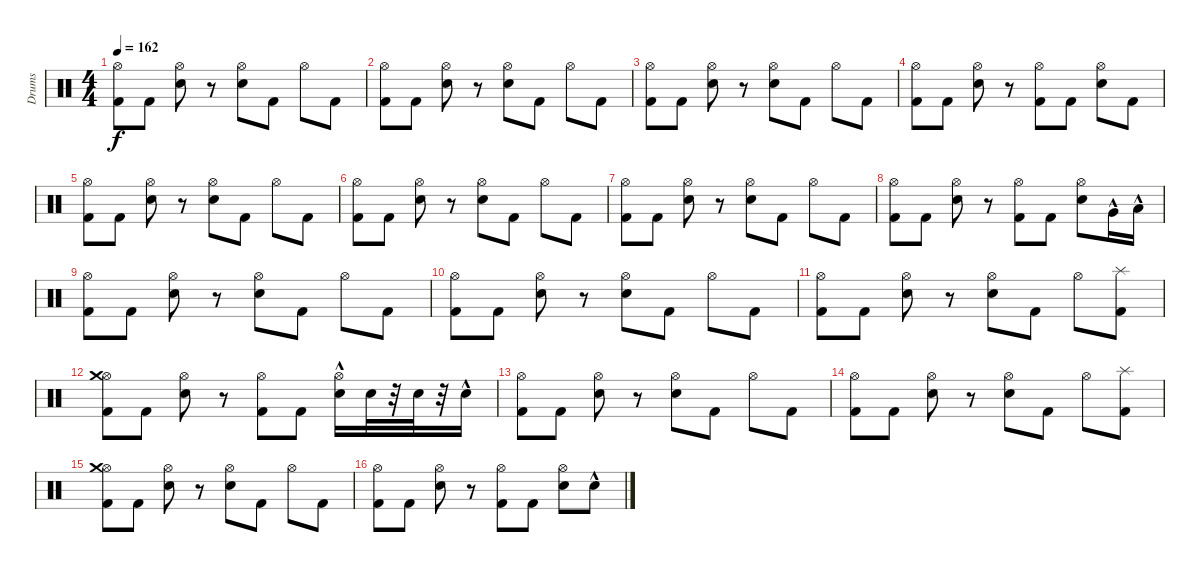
\track ("Drums" "Drums") {instrument percussion}
\staff {score}
\articulation defaults
\ts (4 4)
\tempo 162
\clef neutral
\ks c
("Hi-Hat (open)" "Kick (hit) 2").8{dy f} "Kick (hit) 2".8 ("Hi-Hat (open)" "Electric Snare (hit)").8 r.8 ("Hi-Hat (open)" "Electric Snare (hit)").8 "Kick (hit) 2".8 "Hi-Hat (open)".8 "Kick (hit) 2".8 |
("Hi-Hat (open)" "Kick (hit) 2").8 "Kick (hit) 2".8 ("Hi-Hat (open)" "Electric Snare (hit)").8 r.8 ("Hi-Hat (open)" "Electric Snare (hit)").8 "Kick (hit) 2".8 "Hi-Hat (open)".8 "Kick (hit) 2".8 |
("Hi-Hat (open)" "Kick (hit) 2").8 "Kick (hit) 2".8 ("Hi-Hat (open)" "Electric Snare (hit)").8 r.8 ("Hi-Hat (open)" "Electric Snare (hit)").8 "Kick (hit) 2".8 "Hi-Hat (open)".8 "Kick (hit) 2".8 |
("Hi-Hat (open)" "Kick (hit) 2").8 "Kick (hit) 2".8 ("Hi-Hat (open)" "Electric Snare (hit)").8 r.8 ("Hi-Hat (open)" "Kick (hit) 2").8 "Kick (hit) 2".8 ("Hi-Hat (open)" "Electric Snare (hit)").8 "Kick (hit) 2".8 |
("Hi-Hat (open)" "Kick (hit) 2").8 "Kick (hit) 2".8 ("Hi-Hat (open)" "Electric Snare (hit)").8 r.8 ("Hi-Hat (open)" "Electric Snare (hit)").8 "Kick (hit) 2".8 "Hi-Hat (open)".8 "Kick (hit) 2".8 |
("Hi-Hat (open)" "Kick (hit) 2").8 "Kick (hit) 2".8 ("Hi-Hat (open)" "Electric Snare (hit)").8 r.8 ("Hi-Hat (open)" "Electric Snare (hit)").8 "Kick (hit) 2".8 "Hi-Hat (open)".8 "Kick (hit) 2".8 |
("Hi-Hat (open)" "Kick (hit) 2").8 "Kick (hit) 2".8 ("Hi-Hat (open)" "Electric Snare (hit)").8 r.8 ("Hi-Hat (open)" "Electric Snare (hit)").8 "Kick (hit) 2".8 "Hi-Hat (open)".8 "Kick (hit) 2".8 |
("Hi-Hat (open)" "Kick (hit) 2").8 "Kick (hit) 2".8 ("Hi-Hat (open)" "Electric Snare (hit)").8 r.8 ("Hi-Hat (open)" "Kick (hit) 2").8 "Kick (hit) 2".8 ("Hi-Hat (open)" "Electric Snare (hit)").8 "Very Low Tom (hit)"{hac}.16 "Low Floor Tom (hit)"{hac}.16 |
("Hi-Hat (open)" "Kick (hit) 2").8 "Kick (hit) 2".8 ("Hi-Hat (open)" "Electric Snare (hit)").8 r.8 ("Hi-Hat (open)" "Electric Snare (hit)").8 "Kick (hit) 2".8 "Hi-Hat (open)".8 "Kick (hit) 2".8 |
("Hi-Hat (open)" "Kick (hit) 2").8 "Kick (hit) 2".8 ("Hi-Hat (open)" "Electric Snare (hit)").8 r.8 ("Hi-Hat (open)" "Electric Snare (hit)").8 "Kick (hit) 2".8 "Hi-Hat (open)".8 "Kick (hit) 2".8 |
("Hi-Hat (open)" "Kick (hit) 2").8 "Kick (hit) 2".8 ("Hi-Hat (open)" "Electric Snare (hit)").8 r.8 ("Hi-Hat (open)" "Electric Snare (hit)").8 "Kick (hit) 2".8 "Hi-Hat (open)".8 ("Kick (hit) 2" "Splash (hit)").8 |
("Hi-Hat (open)" "Kick (hit) 2" "Crash medium (hit)").8 "Kick (hit) 2".8 ("Hi-Hat (open)" "Electric Snare (hit)").8 r.8 ("Hi-Hat (open)" "Kick (hit) 2").8 "Kick (hit) 2".8 ("Hi-Hat (open)"{hac} "Electric Snare (hit)").16 "Electric Snare (hit)".32 r.32 "Electric Snare (hit)".32 r.32 "Electric Snare (hit)"{hac}.16 |
("Hi-Hat (open)" "Kick (hit) 2").8 "Kick (hit) 2".8 ("Hi-Hat (open)" "Electric Snare (hit)").8 r.8 ("Hi-Hat (open)" "Electric Snare (hit)").8 "Kick (hit) 2".8 "Hi-Hat (open)".8 "Kick (hit) 2".8 |
("Hi-Hat (open)" "Kick (hit) 2").8 "Kick (hit) 2".8 ("Hi-Hat (open)" "Electric Snare (hit)").8 r.8 ("Hi-Hat (open)" "Electric Snare (hit)").8 "Kick (hit) 2".8 "Hi-Hat (open)".8 ("Kick (hit) 2" "Splash (hit)").8 |
("Hi-Hat (open)" "Kick (hit) 2" "Crash medium (hit)").8 "Kick (hit) 2".8 ("Hi-Hat (open)" "Electric Snare (hit)").8 r.8 ("Hi-Hat (open)" "Electric Snare (hit)").8 "Kick (hit) 2".8 "Hi-Hat (open)".8 "Kick (hit) 2".8 |
("Hi-Hat (open)" "Kick (hit) 2").8 "Kick (hit) 2".8 ("Hi-Hat (open)" "Electric Snare (hit)").8 r.8 ("Hi-Hat (open)" "Kick (hit) 2").8 "Kick (hit) 2".8 ("Hi-Hat (open)" "Electric Snare (hit)").8 "Electric Snare (hit)"{hac}.8
